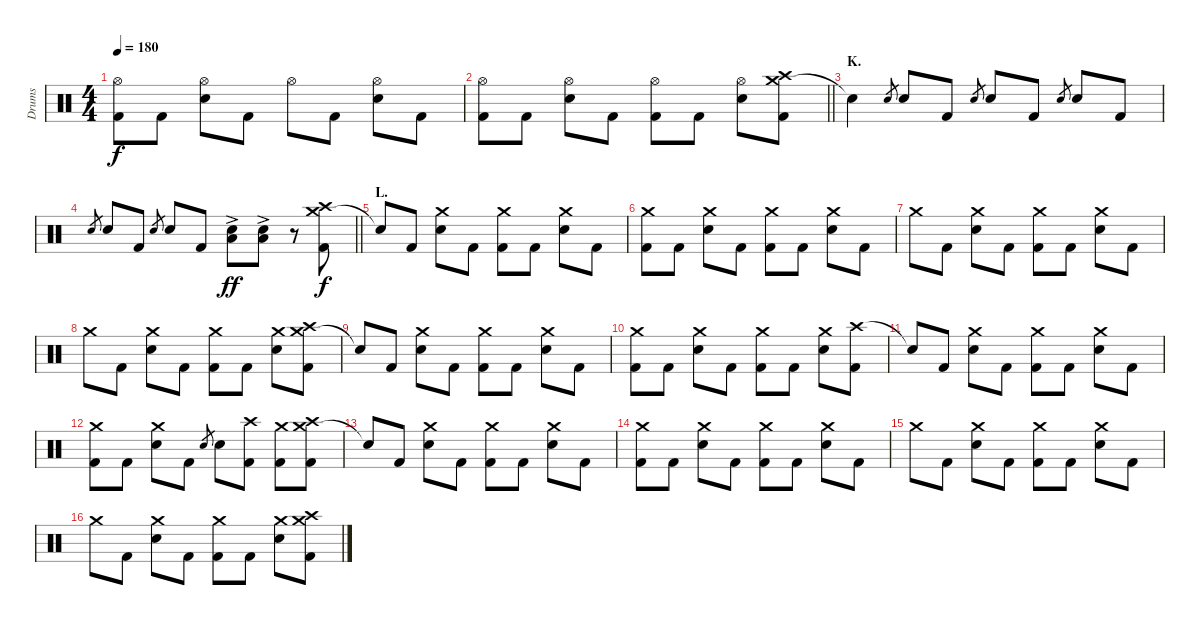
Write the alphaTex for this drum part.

\track ("Drums" "Drums") {instrument percussion}
\staff {score}
\articulation defaults
\ts (4 4)
\tempo 180
\clef neutral
\ks c
("Hi-Hat (open)" "Kick (hit) 2").8{dy f} "Kick (hit) 2".8 ("Hi-Hat (open)" "Electric Snare (hit)").8 "Kick (hit) 2".8 "Hi-Hat (open)".8 "Kick (hit) 2".8 ("Hi-Hat (open)" "Electric Snare (hit)").8 "Kick (hit) 2".8 |
\barLineRight lightlight
("Hi-Hat (open)" "Kick (hit) 2").8 "Kick (hit) 2".8 ("Hi-Hat (open)" "Electric Snare (hit)").8 "Kick (hit) 2".8 ("Hi-Hat (open)" "Kick (hit) 2").8 "Kick (hit) 2".8 ("Hi-Hat (open)" "Electric Snare (hit)").8 ("Crash medium (hit)" "Crash high (hit)" "Kick (hit) 2").8 |
\section ("" "K.")
"Snare (hit)"{t}.4 "Electric Snare (hit)".8{gr} "Electric Snare (hit)".8 "Kick (hit) 2".8 "Electric Snare (hit)".8{gr} "Electric Snare (hit)".8 "Kick (hit) 2".8 "Electric Snare (hit)".8{gr} "Electric Snare (hit)".8 "Kick (hit) 2".8 |
\barLineRight lightlight "Electric Snare (hit)".8{gr} "Electric Snare (hit)".8 "Kick (hit) 2".8 "Electric Snare (hit)".8{gr} "Electric Snare (hit)".8 "Kick (hit) 2".8
("Electric Snare (hit)" "Low Floor Tom (hit)"{ac}).8{bu 120 dy ff} ("Electric Snare (hit)" "Low Floor Tom (hit)"{ac}).8{bu 120} r.8 ("Crash medium (hit)" "Crash high (hit)" "Kick (hit) 2").8{dy f} |
\section ("" "L.")
"Snare (hit)"{t}.8 "Kick (hit) 2".8 ("Crash medium (hit)" "Electric Snare (hit)").8 "Kick (hit) 2".8 ("Crash medium (hit)" "Kick (hit) 2").8 "Kick (hit) 2".8 ("Crash medium (hit)" "Electric Snare (hit)").8 "Kick (hit) 2".8 |
("Crash medium (hit)" "Kick (hit) 2").8 "Kick (hit) 2".8 ("Crash medium (hit)" "Electric Snare (hit)").8 "Kick (hit) 2".8 ("Crash medium (hit)" "Kick (hit) 2").8 "Kick (hit) 2".8 ("Crash medium (hit)" "Electric Snare (hit)").8 "Kick (hit) 2".8 |
"Crash medium (hit)".8 "Kick (hit) 2".8 ("Crash medium (hit)" "Electric Snare (hit)").8 "Kick (hit) 2".8 ("Crash medium (hit)" "Kick (hit) 2").8 "Kick (hit) 2".8 ("Crash medium (hit)" "Electric Snare (hit)").8 "Kick (hit) 2".8 |
"Crash medium (hit)".8 "Kick (hit) 2".8 ("Crash medium (hit)" "Electric Snare (hit)").8 "Kick (hit) 2".8 ("Crash medium (hit)" "Kick (hit) 2").8 "Kick (hit) 2".8 ("Crash medium (hit)" "Electric Snare (hit)").8 ("Crash medium (hit)" "Crash high (hit)" "Kick (hit) 2").8 |
"Snare (hit)"{t}.8 "Kick (hit) 2".8 ("Crash medium (hit)" "Electric Snare (hit)").8 "Kick (hit) 2".8 ("Crash medium (hit)" "Kick (hit) 2").8 "Kick (hit) 2".8 ("Crash medium (hit)" "Electric Snare (hit)").8 "Kick (hit) 2".8 |
("Crash medium (hit)" "Kick (hit) 2").8 "Kick (hit) 2".8 ("Crash medium (hit)" "Electric Snare (hit)").8 "Kick (hit) 2".8 ("Crash medium (hit)" "Kick (hit) 2").8 "Kick (hit) 2".8 ("Crash medium (hit)" "Electric Snare (hit)").8 ("Crash high (hit)" "Kick (hit) 2").8 |
"Snare (hit)"{t}.8 "Kick (hit) 2".8 ("Crash medium (hit)" "Electric Snare (hit)").8 "Kick (hit) 2".8 ("Crash medium (hit)" "Kick (hit) 2").8 "Kick (hit) 2".8 ("Crash medium (hit)" "Electric Snare (hit)").8 "Kick (hit) 2".8 |
("Crash medium (hit)" "Kick (hit) 2").8 "Kick (hit) 2".8 ("Crash medium (hit)" "Electric Snare (hit)").8 "Kick (hit) 2".8 "Electric Snare (hit)".8{gr} "Electric Snare (hit)".8 ("Crash high (hit)" "Kick (hit) 2").8 ("Crash medium (hit)" "Kick (hit) 2").8 ("Crash medium (hit)" "Crash high (hit)" "Kick (hit) 2").8 |
"Snare (hit)"{t}.8 "Kick (hit) 2".8 ("Crash medium (hit)" "Electric Snare (hit)").8 "Kick (hit) 2".8 ("Crash medium (hit)" "Kick (hit) 2").8 "Kick (hit) 2".8 ("Crash medium (hit)" "Electric Snare (hit)").8 "Kick (hit) 2".8 |
("Crash medium (hit)" "Kick (hit) 2").8 "Kick (hit) 2".8 ("Crash medium (hit)" "Electric Snare (hit)").8 "Kick (hit) 2".8 ("Crash medium (hit)" "Kick (hit) 2").8 "Kick (hit) 2".8 ("Crash medium (hit)" "Electric Snare (hit)").8 "Kick (hit) 2".8 |
"Crash medium (hit)".8 "Kick (hit) 2".8 ("Crash medium (hit)" "Electric Snare (hit)").8 "Kick (hit) 2".8 ("Crash medium (hit)" "Kick (hit) 2").8 "Kick (hit) 2".8 ("Crash medium (hit)" "Electric Snare (hit)").8 "Kick (hit) 2".8 |
"Crash medium (hit)".8 "Kick (hit) 2".8 ("Crash medium (hit)" "Electric Snare (hit)").8 "Kick (hit) 2".8 ("Crash medium (hit)" "Kick (hit) 2").8 "Kick (hit) 2".8 ("Crash medium (hit)" "Electric Snare (hit)").8 ("Crash medium (hit)" "Crash high (hit)" "Kick (hit) 2").8
